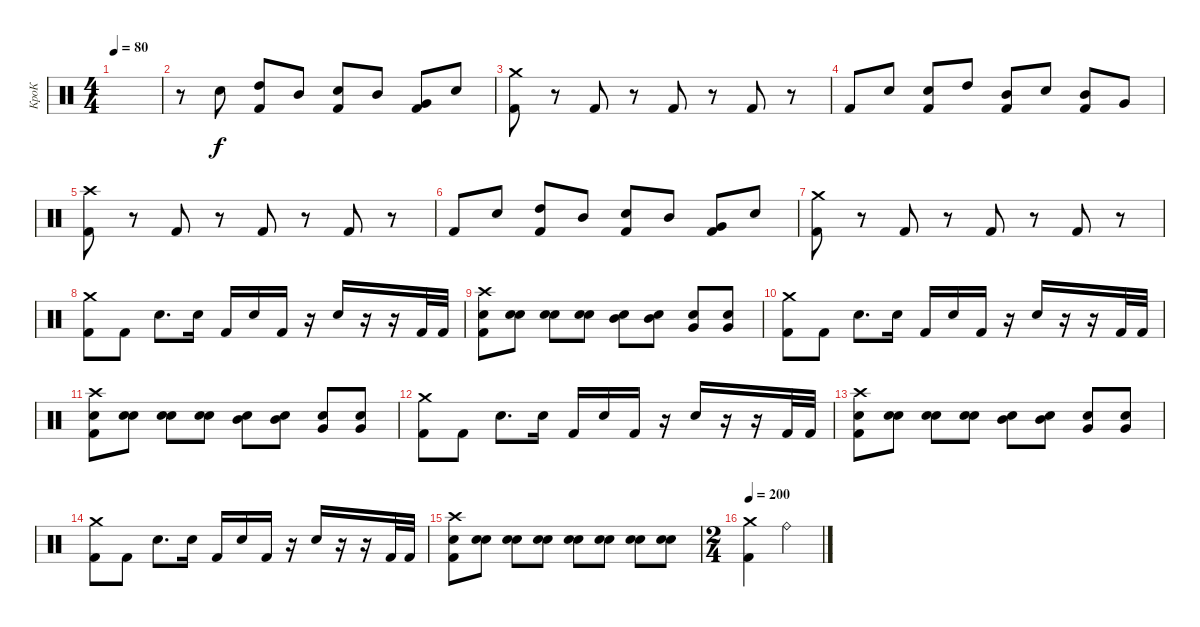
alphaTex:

\track ("КроК" "КроК") {instrument percussion}
\staff {score}
\articulation defaults
\ts (4 4)
\tempo 80
\clef neutral
\ks c
|
r.8 "Electric Snare (hit)".8 ("High Tom (hit)" "Kick (hit) 2").8 "Mid Tom (hit)".8 ("Electric Snare (hit)" "Kick (hit) 2").8 "Mid Tom (hit)".8 ("Very Low Tom (hit)" "Kick (hit) 2").8 "Electric Snare (hit)".8 |
("Crash medium (hit)" "Kick (hit) 2").8 r.8 "Kick (hit) 2".8 r.8 "Kick (hit) 2".8 r.8 "Kick (hit) 2".8 r.8 |
"Kick (hit) 2".8 "Electric Snare (hit)".8 ("Electric Snare (hit)" "Kick (hit) 2").8 "High Tom (hit)".8 ("Mid Tom (hit)" "Kick (hit) 2").8 "Electric Snare (hit)".8 ("Mid Tom (hit)" "Kick (hit) 2").8 "Very Low Tom (hit)".8 |
("Crash high (hit)" "Kick (hit) 2").8 r.8 "Kick (hit) 2".8 r.8 "Kick (hit) 2".8 r.8 "Kick (hit) 2".8 r.8 |
"Kick (hit) 2".8 "Electric Snare (hit)".8 ("High Tom (hit)" "Kick (hit) 2").8 "Mid Tom (hit)".8 ("Electric Snare (hit)" "Kick (hit) 2").8 "Mid Tom (hit)".8 ("Very Low Tom (hit)" "Kick (hit) 2").8 "Electric Snare (hit)".8 |
("Crash medium (hit)" "Kick (hit) 2").8 r.8 "Kick (hit) 2".8 r.8 "Kick (hit) 2".8 r.8 "Kick (hit) 2".8 r.8 |
("Crash medium (hit)" "Kick (hit) 2").8 "Kick (hit) 2".8 "Electric Snare (hit)".8{d} "Electric Snare (hit)".16 "Kick (hit) 2".16 "Electric Snare (hit)".16 "Kick (hit) 2".16 r.16 "Electric Snare (hit)".16 r.16 r.16 "Kick (hit) 2".32 "Kick (hit) 2".32 |
("Crash high (hit)" "Electric Snare (hit)" "Kick (hit) 2").8 ("Electric Snare (hit)" "Electric Snare (hit)").8 ("Electric Snare (hit)" "Electric Snare (hit)").8 ("Electric Snare (hit)" "Electric Snare (hit)").8 ("Electric Snare (hit)" "Mid Tom (hit)").8 ("Electric Snare (hit)" "Mid Tom (hit)").8 ("Electric Snare (hit)" "Very Low Tom (hit)").8 ("Electric Snare (hit)" "Very Low Tom (hit)").8 |
("Crash medium (hit)" "Kick (hit) 2").8 "Kick (hit) 2".8 "Electric Snare (hit)".8{d} "Electric Snare (hit)".16 "Kick (hit) 2".16 "Electric Snare (hit)".16 "Kick (hit) 2".16 r.16 "Electric Snare (hit)".16 r.16 r.16 "Kick (hit) 2".32 "Kick (hit) 2".32 |
("Crash high (hit)" "Electric Snare (hit)" "Kick (hit) 2").8 ("Electric Snare (hit)" "Electric Snare (hit)").8 ("Electric Snare (hit)" "Electric Snare (hit)").8 ("Electric Snare (hit)" "Electric Snare (hit)").8 ("Electric Snare (hit)" "Mid Tom (hit)").8 ("Electric Snare (hit)" "Mid Tom (hit)").8 ("Electric Snare (hit)" "Very Low Tom (hit)").8 ("Electric Snare (hit)" "Very Low Tom (hit)").8 |
("Crash medium (hit)" "Kick (hit) 2").8 "Kick (hit) 2".8 "Electric Snare (hit)".8{d} "Electric Snare (hit)".16 "Kick (hit) 2".16 "Electric Snare (hit)".16 "Kick (hit) 2".16 r.16 "Electric Snare (hit)".16 r.16 r.16 "Kick (hit) 2".32 "Kick (hit) 2".32 |
("Crash high (hit)" "Electric Snare (hit)" "Kick (hit) 2").8 ("Electric Snare (hit)" "Electric Snare (hit)").8 ("Electric Snare (hit)" "Electric Snare (hit)").8 ("Electric Snare (hit)" "Electric Snare (hit)").8 ("Electric Snare (hit)" "Mid Tom (hit)").8 ("Electric Snare (hit)" "Mid Tom (hit)").8 ("Electric Snare (hit)" "Very Low Tom (hit)").8 ("Electric Snare (hit)" "Very Low Tom (hit)").8 |
("Crash medium (hit)" "Kick (hit) 2").8 "Kick (hit) 2".8 "Electric Snare (hit)".8{d} "Electric Snare (hit)".16 "Kick (hit) 2".16 "Electric Snare (hit)".16 "Kick (hit) 2".16 r.16 "Electric Snare (hit)".16 r.16 r.16 "Kick (hit) 2".32 "Kick (hit) 2".32 |
("Crash high (hit)" "Electric Snare (hit)" "Kick (hit) 2").8 ("Electric Snare (hit)" "Electric Snare (hit)").8 ("Electric Snare (hit)" "Electric Snare (hit)").8 ("Electric Snare (hit)" "Electric Snare (hit)").8 ("Electric Snare (hit)" "Electric Snare (hit)").8 ("Electric Snare (hit)" "Electric Snare (hit)").8 ("Electric Snare (hit)" "Electric Snare (hit)").8 ("Electric Snare (hit)" "Electric Snare (hit)").8 |
\ts (2 4)
\tempo 200
("Crash medium (hit)" "Kick (hit) 2").4 "Ride (bell)".4
